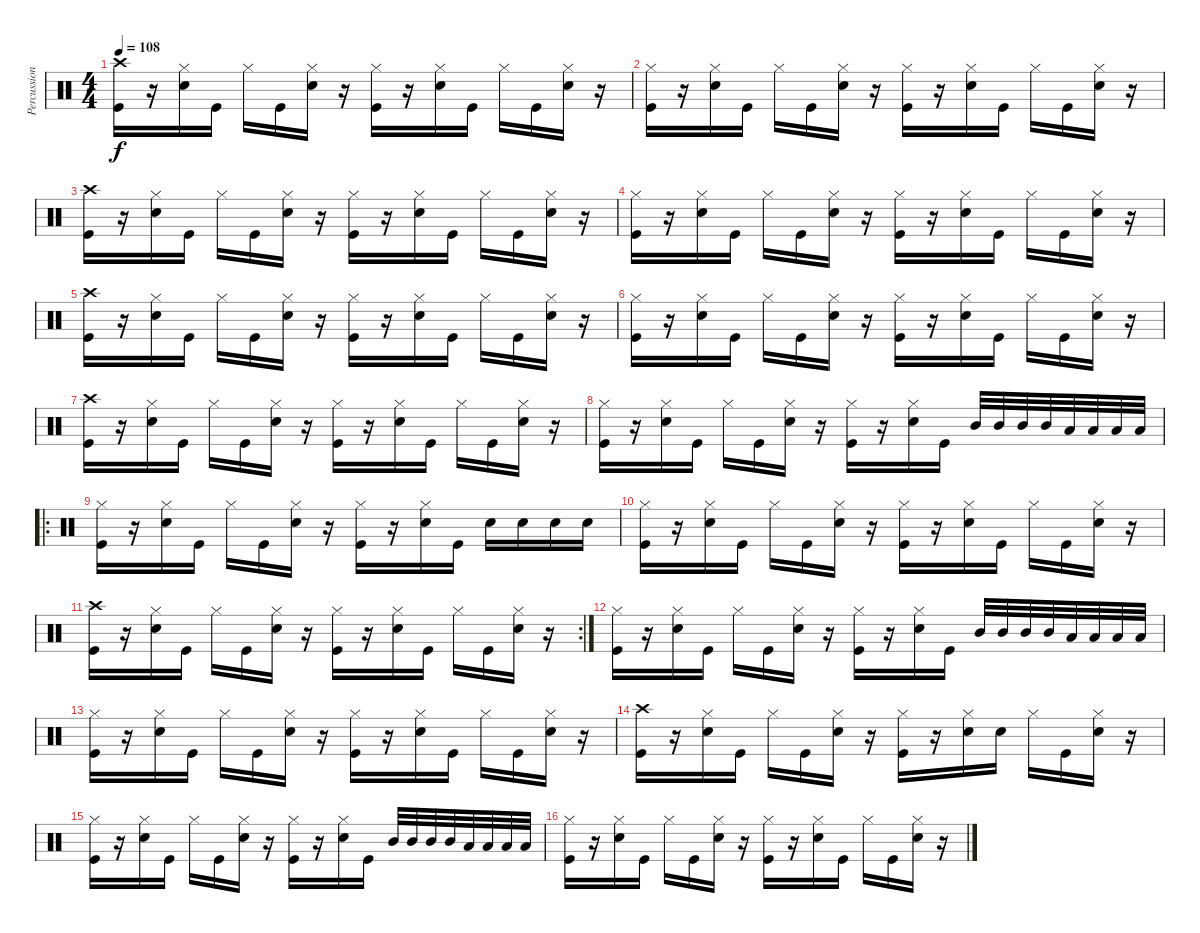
\track ("Percussion" "Percussion") {instrument percussion}
\staff {score}
\articulation defaults
\ts (4 4)
\tempo 108
\clef neutral
\ks c
("Kick (hit)" "Crash high (hit)").16{dy f} r.16 ("Snare (hit) 2" "Hi-Hat (closed)").16 "Kick (hit)".16 "Hi-Hat (closed)".16 "Kick (hit)".16 ("Snare (hit) 2" "Hi-Hat (closed)").16 r.16 ("Kick (hit)" "Hi-Hat (closed)").16 r.16 ("Snare (hit) 2" "Hi-Hat (closed)").16 "Kick (hit)".16 "Hi-Hat (closed)".16 "Kick (hit)".16 ("Snare (hit) 2" "Hi-Hat (closed)").16 r.16 |
("Hi-Hat (closed)" "Kick (hit)").16 r.16 ("Snare (hit) 2" "Hi-Hat (closed)").16 "Kick (hit)".16 "Hi-Hat (closed)".16 "Kick (hit)".16 ("Snare (hit) 2" "Hi-Hat (closed)").16 r.16 ("Kick (hit)" "Hi-Hat (closed)").16 r.16 ("Snare (hit) 2" "Hi-Hat (closed)").16 "Kick (hit)".16 "Hi-Hat (closed)".16 "Kick (hit)".16 ("Snare (hit) 2" "Hi-Hat (closed)").16 r.16 |
("Kick (hit)" "Crash high (hit)").16 r.16 ("Snare (hit) 2" "Hi-Hat (closed)").16 "Kick (hit)".16 "Hi-Hat (closed)".16 "Kick (hit)".16 ("Snare (hit) 2" "Hi-Hat (closed)").16 r.16 ("Kick (hit)" "Hi-Hat (closed)").16 r.16 ("Snare (hit) 2" "Hi-Hat (closed)").16 "Kick (hit)".16 "Hi-Hat (closed)".16 "Kick (hit)".16 ("Snare (hit) 2" "Hi-Hat (closed)").16 r.16 |
("Hi-Hat (closed)" "Kick (hit)").16 r.16 ("Snare (hit) 2" "Hi-Hat (closed)").16 "Kick (hit)".16 "Hi-Hat (closed)".16 "Kick (hit)".16 ("Snare (hit) 2" "Hi-Hat (closed)").16 r.16 ("Kick (hit)" "Hi-Hat (closed)").16 r.16 ("Snare (hit) 2" "Hi-Hat (closed)").16 "Kick (hit)".16 "Hi-Hat (closed)".16 "Kick (hit)".16 ("Snare (hit) 2" "Hi-Hat (closed)").16 r.16 |
("Kick (hit)" "Crash high (hit)").16 r.16 ("Snare (hit) 2" "Hi-Hat (closed)").16 "Kick (hit)".16 "Hi-Hat (closed)".16 "Kick (hit)".16 ("Snare (hit) 2" "Hi-Hat (closed)").16 r.16 ("Kick (hit)" "Hi-Hat (closed)").16 r.16 ("Snare (hit) 2" "Hi-Hat (closed)").16 "Kick (hit)".16 "Hi-Hat (closed)".16 "Kick (hit)".16 ("Snare (hit) 2" "Hi-Hat (closed)").16 r.16 |
("Hi-Hat (closed)" "Kick (hit)").16 r.16 ("Snare (hit) 2" "Hi-Hat (closed)").16 "Kick (hit)".16 "Hi-Hat (closed)".16 "Kick (hit)".16 ("Snare (hit) 2" "Hi-Hat (closed)").16 r.16 ("Kick (hit)" "Hi-Hat (closed)").16 r.16 ("Snare (hit) 2" "Hi-Hat (closed)").16 "Kick (hit)".16 "Hi-Hat (closed)".16 "Kick (hit)".16 ("Snare (hit) 2" "Hi-Hat (closed)").16 r.16 |
("Kick (hit)" "Crash high (hit)").16 r.16 ("Snare (hit) 2" "Hi-Hat (closed)").16 "Kick (hit)".16 "Hi-Hat (closed)".16 "Kick (hit)".16 ("Snare (hit) 2" "Hi-Hat (closed)").16 r.16 ("Kick (hit)" "Hi-Hat (closed)").16 r.16 ("Snare (hit) 2" "Hi-Hat (closed)").16 "Kick (hit)".16 "Hi-Hat (closed)".16 "Kick (hit)".16 ("Snare (hit) 2" "Hi-Hat (closed)").16 r.16 |
("Hi-Hat (closed)" "Kick (hit)").16 r.16 ("Snare (hit) 2" "Hi-Hat (closed)").16 "Kick (hit)".16 "Hi-Hat (closed)".16 "Kick (hit)".16 ("Snare (hit) 2" "Hi-Hat (closed)").16 r.16 ("Kick (hit)" "Hi-Hat (closed)").16 r.16 ("Snare (hit) 2" "Hi-Hat (closed)").16 "Kick (hit)".16 "Mid Tom (hit)".32 "Mid Tom (hit)".32 "Mid Tom (hit)".32 "Mid Tom (hit)".32 "Low Tom (hit)".32 "Low Tom (hit)".32 "Low Tom (hit)".32 "Low Tom (hit)".32 |
\ro
("Hi-Hat (closed)" "Kick (hit)").16 r.16 ("Snare (hit) 2" "Hi-Hat (closed)").16 "Kick (hit)".16 "Hi-Hat (closed)".16 "Kick (hit)".16 ("Snare (hit) 2" "Hi-Hat (closed)").16 r.16 ("Kick (hit)" "Hi-Hat (closed)").16 r.16 ("Snare (hit) 2" "Hi-Hat (closed)").16 "Kick (hit)".16 "Snare (hit) 2".16 "Snare (hit) 2".16 "Snare (hit) 2".16 "Snare (hit) 2".16 |
("Hi-Hat (closed)" "Kick (hit)").16 r.16 ("Snare (hit) 2" "Hi-Hat (closed)").16 "Kick (hit)".16 "Hi-Hat (closed)".16 "Kick (hit)".16 ("Snare (hit) 2" "Hi-Hat (closed)").16 r.16 ("Kick (hit)" "Hi-Hat (closed)").16 r.16 ("Snare (hit) 2" "Hi-Hat (closed)").16 "Kick (hit)".16 "Hi-Hat (closed)".16 "Kick (hit)".16 ("Snare (hit) 2" "Hi-Hat (closed)").16 r.16 |
\rc 2
("Kick (hit)" "Crash high (hit)").16 r.16 ("Snare (hit) 2" "Hi-Hat (closed)").16 "Kick (hit)".16 "Hi-Hat (closed)".16 "Kick (hit)".16 ("Snare (hit) 2" "Hi-Hat (closed)").16 r.16 ("Kick (hit)" "Hi-Hat (closed)").16 r.16 ("Snare (hit) 2" "Hi-Hat (closed)").16 "Kick (hit)".16 "Hi-Hat (closed)".16 "Kick (hit)".16 ("Snare (hit) 2" "Hi-Hat (closed)").16 r.16 |
("Hi-Hat (closed)" "Kick (hit)").16 r.16 ("Snare (hit) 2" "Hi-Hat (closed)").16 "Kick (hit)".16 "Hi-Hat (closed)".16 "Kick (hit)".16 ("Snare (hit) 2" "Hi-Hat (closed)").16 r.16 ("Kick (hit)" "Hi-Hat (closed)").16 r.16 ("Snare (hit) 2" "Hi-Hat (closed)").16 "Kick (hit)".16 "Mid Tom (hit)".32 "Mid Tom (hit)".32 "Mid Tom (hit)".32 "Mid Tom (hit)".32 "Low Tom (hit)".32 "Low Tom (hit)".32 "Low Tom (hit)".32 "Low Tom (hit)".32 |
("Hi-Hat (closed)" "Kick (hit)").16 r.16 ("Snare (hit) 2" "Hi-Hat (closed)").16 "Kick (hit)".16 "Hi-Hat (closed)".16 "Kick (hit)".16 ("Snare (hit) 2" "Hi-Hat (closed)").16 r.16 ("Kick (hit)" "Hi-Hat (closed)").16 r.16 ("Snare (hit) 2" "Hi-Hat (closed)").16 "Kick (hit)".16 "Hi-Hat (closed)".16 "Kick (hit)".16 ("Snare (hit) 2" "Hi-Hat (closed)").16 r.16 |
("Kick (hit)" "Crash high (hit)").16 r.16 ("Snare (hit) 2" "Hi-Hat (closed)").16 "Kick (hit)".16 "Hi-Hat (closed)".16 "Kick (hit)".16 ("Snare (hit) 2" "Hi-Hat (closed)").16 r.16 ("Kick (hit)" "Hi-Hat (closed)").16 r.16 ("Snare (hit) 2" "Hi-Hat (closed)").16 "Snare (hit) 2".16 "Hi-Hat (closed)".16 "Kick (hit)".16 ("Snare (hit) 2" "Hi-Hat (closed)").16 r.16 |
("Hi-Hat (closed)" "Kick (hit)").16 r.16 ("Snare (hit) 2" "Hi-Hat (closed)").16 "Kick (hit)".16 "Hi-Hat (closed)".16 "Kick (hit)".16 ("Snare (hit) 2" "Hi-Hat (closed)").16 r.16 ("Kick (hit)" "Hi-Hat (closed)").16 r.16 ("Snare (hit) 2" "Hi-Hat (closed)").16 "Kick (hit)".16 "Mid Tom (hit)".32 "Mid Tom (hit)".32 "Mid Tom (hit)".32 "Mid Tom (hit)".32 "Low Tom (hit)".32 "Low Tom (hit)".32 "Low Tom (hit)".32 "Low Tom (hit)".32 |
("Hi-Hat (closed)" "Kick (hit)").16 r.16 ("Snare (hit) 2" "Hi-Hat (closed)").16 "Kick (hit)".16 "Hi-Hat (closed)".16 "Kick (hit)".16 ("Snare (hit) 2" "Hi-Hat (closed)").16 r.16 ("Kick (hit)" "Hi-Hat (closed)").16 r.16 ("Snare (hit) 2" "Hi-Hat (closed)").16 "Kick (hit)".16 "Hi-Hat (closed)".16 "Kick (hit)".16 ("Snare (hit) 2" "Hi-Hat (closed)").16 r.16
